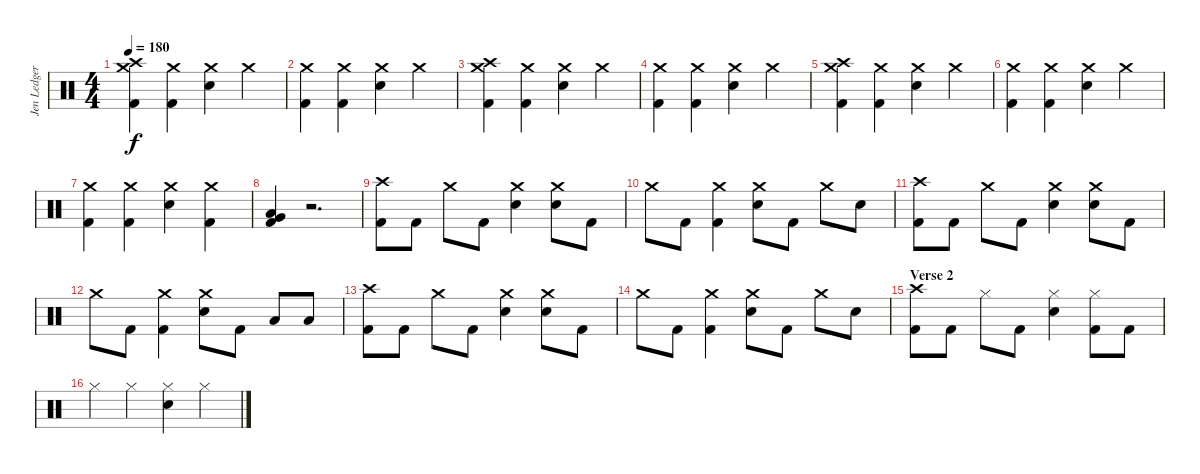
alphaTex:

\track ("Jen Ledger" "Jen Ledger") {instrument percussion}
\staff {score}
\articulation defaults
\ts (4 4)
\tempo 180
\clef neutral
\ks c
("Crash high (hit)" "Crash medium (hit)" "Kick (hit) 2").4{dy f} ("Crash medium (hit)" "Kick (hit) 2").4 ("Crash medium (hit)" "Electric Snare (hit)").4 "Crash medium (hit)".4 |
("Crash medium (hit)" "Kick (hit) 2").4 ("Crash medium (hit)" "Kick (hit) 2").4 ("Crash medium (hit)" "Electric Snare (hit)").4 "Crash medium (hit)".4 |
("Crash high (hit)" "Crash medium (hit)" "Kick (hit) 2").4 ("Crash medium (hit)" "Kick (hit) 2").4 ("Crash medium (hit)" "Electric Snare (hit)").4 "Crash medium (hit)".4 |
("Crash medium (hit)" "Kick (hit) 2").4 ("Crash medium (hit)" "Kick (hit) 2").4 ("Crash medium (hit)" "Electric Snare (hit)").4 "Crash medium (hit)".4 |
("Crash high (hit)" "Crash medium (hit)" "Kick (hit) 2").4 ("Crash medium (hit)" "Kick (hit) 2").4 ("Crash medium (hit)" "Electric Snare (hit)").4 "Crash medium (hit)".4 |
("Crash medium (hit)" "Kick (hit) 2").4 ("Crash medium (hit)" "Kick (hit) 2").4 ("Crash medium (hit)" "Electric Snare (hit)").4 "Crash medium (hit)".4 |
("Crash medium (hit)" "Kick (hit) 2").4 ("Crash medium (hit)" "Kick (hit) 2").4 ("Crash medium (hit)" "Electric Snare (hit)").4 ("Crash medium (hit)" "Kick (hit) 2").4 |
("Very Low Tom (hit)" "Low Floor Tom (hit)" "Kick (hit) 2").4 r.2{d} |
("Crash high (hit)" "Kick (hit) 2").8 "Kick (hit) 2".8 "Crash medium (hit)".8 "Kick (hit) 2".8 ("Crash medium (hit)" "Electric Snare (hit)").4 ("Crash medium (hit)" "Electric Snare (hit)").8 "Kick (hit) 2".8 |
"Crash medium (hit)".8 "Kick (hit) 2".8 ("Crash medium (hit)" "Kick (hit) 2").4 ("Crash medium (hit)" "Electric Snare (hit)").8 "Kick (hit) 2".8 "Crash medium (hit)".8 "Electric Snare (hit)".8 |
("Crash high (hit)" "Kick (hit) 2").8 "Kick (hit) 2".8 "Crash medium (hit)".8 "Kick (hit) 2".8 ("Crash medium (hit)" "Electric Snare (hit)").4 ("Crash medium (hit)" "Electric Snare (hit)").8 "Kick (hit) 2".8 |
"Crash medium (hit)".8 "Kick (hit) 2".8 ("Crash medium (hit)" "Kick (hit) 2").4 ("Crash medium (hit)" "Electric Snare (hit)").8 "Kick (hit) 2".8 "Low Floor Tom (hit)".8 "Low Floor Tom (hit)".8 |
("Crash high (hit)" "Kick (hit) 2").8 "Kick (hit) 2".8 "Crash medium (hit)".8 "Kick (hit) 2".8 ("Crash medium (hit)" "Electric Snare (hit)").4 ("Crash medium (hit)" "Electric Snare (hit)").8 "Kick (hit) 2".8 |
"Crash medium (hit)".8 "Kick (hit) 2".8 ("Crash medium (hit)" "Kick (hit) 2").4 ("Crash medium (hit)" "Electric Snare (hit)").8 "Kick (hit) 2".8 "Crash medium (hit)".8 "Electric Snare (hit)".8 |
\section ("" "Verse 2")
("Crash high (hit)" "Kick (hit) 2").8 "Kick (hit) 2".8 "Hi-Hat (closed)".8 "Kick (hit) 2".8 ("Hi-Hat (closed)" "Electric Snare (hit)").4 ("Hi-Hat (closed)" "Kick (hit) 2").8 "Kick (hit) 2".8 |
"Hi-Hat (closed)".4 "Hi-Hat (closed)".4 ("Hi-Hat (closed)" "Electric Snare (hit)").4 "Hi-Hat (closed)".4
